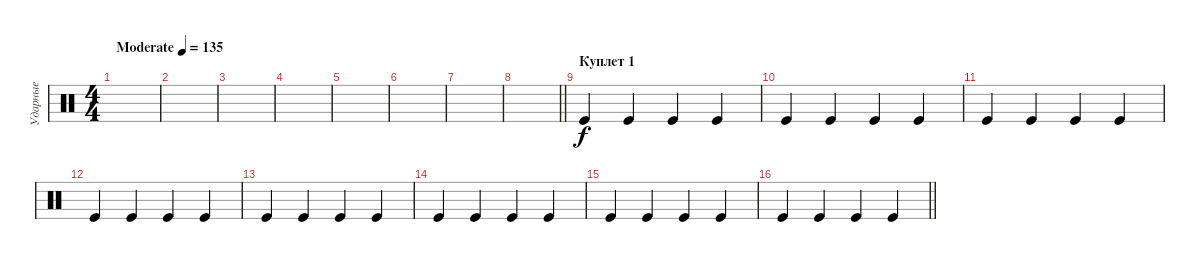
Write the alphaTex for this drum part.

\track ("Ударные" "Ударные") {instrument percussion}
\staff {score}
\articulation defaults
\ts (4 4)
\tempo (135 "Moderate")
\clef neutral
\ks c
|
|
|
|
|
|
|
\barLineRight lightlight
|
\section ("" "Куплет 1")
"Kick (hit)".4 "Kick (hit)".4 "Kick (hit)".4 "Kick (hit)".4 |
"Kick (hit)".4 "Kick (hit)".4 "Kick (hit)".4 "Kick (hit)".4 |
"Kick (hit)".4 "Kick (hit)".4 "Kick (hit)".4 "Kick (hit)".4 |
"Kick (hit)".4 "Kick (hit)".4 "Kick (hit)".4 "Kick (hit)".4 |
"Kick (hit)".4 "Kick (hit)".4 "Kick (hit)".4 "Kick (hit)".4 |
"Kick (hit)".4 "Kick (hit)".4 "Kick (hit)".4 "Kick (hit)".4 |
"Kick (hit)".4 "Kick (hit)".4 "Kick (hit)".4 "Kick (hit)".4 |
\barLineRight lightlight "Kick (hit)".4 "Kick (hit)".4 "Kick (hit)".4 "Kick (hit)".4
